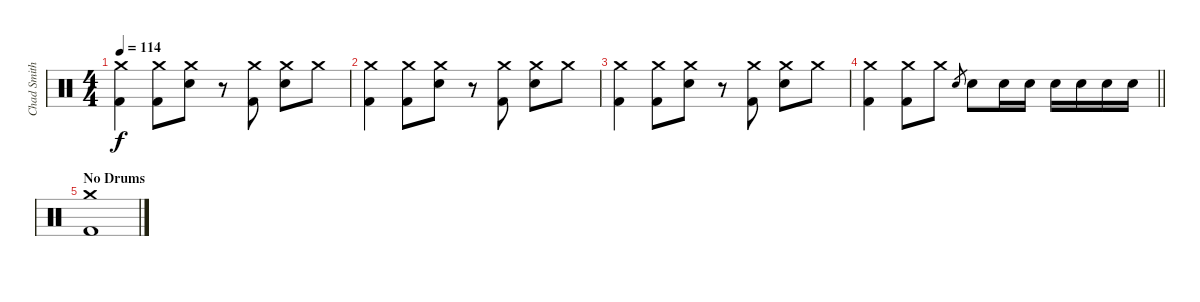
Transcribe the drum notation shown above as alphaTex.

\track ("Chad Smith" "Chad Smith") {instrument percussion}
\staff {score}
\articulation defaults
\ts (4 4)
\tempo 114
\clef neutral
\ks c
("Crash medium (hit)" "Kick (hit) 2").4{dy f} ("Crash medium (hit)" "Kick (hit) 2").8 ("Crash medium (hit)" "Snare (hit) 2").8 r.8 ("Crash medium (hit)" "Kick (hit) 2").8 ("Crash medium (hit)" "Snare (hit) 2").8 "Crash medium (hit)".8 |
("Crash medium (hit)" "Kick (hit) 2").4 ("Crash medium (hit)" "Kick (hit) 2").8 ("Crash medium (hit)" "Snare (hit) 2").8 r.8 ("Crash medium (hit)" "Kick (hit) 2").8 ("Crash medium (hit)" "Snare (hit) 2").8 "Crash medium (hit)".8 |
("Crash medium (hit)" "Kick (hit) 2").4 ("Crash medium (hit)" "Kick (hit) 2").8 ("Crash medium (hit)" "Snare (hit) 2").8 r.8 ("Crash medium (hit)" "Kick (hit) 2").8 ("Crash medium (hit)" "Snare (hit) 2").8 "Crash medium (hit)".8 |
\barLineRight lightlight
("Crash medium (hit)" "Kick (hit) 2").4 ("Crash medium (hit)" "Kick (hit) 2").8 "Crash medium (hit)".8 "Snare (hit) 2".8{gr} "Snare (hit) 2".8 "Snare (hit) 2".16 "Snare (hit) 2".16 "Snare (hit) 2".16 "Snare (hit) 2".16 "Snare (hit) 2".16 "Snare (hit) 2".16 |
\section ("" "No Drums")
("Crash medium (hit)" "Kick (hit) 2").1
